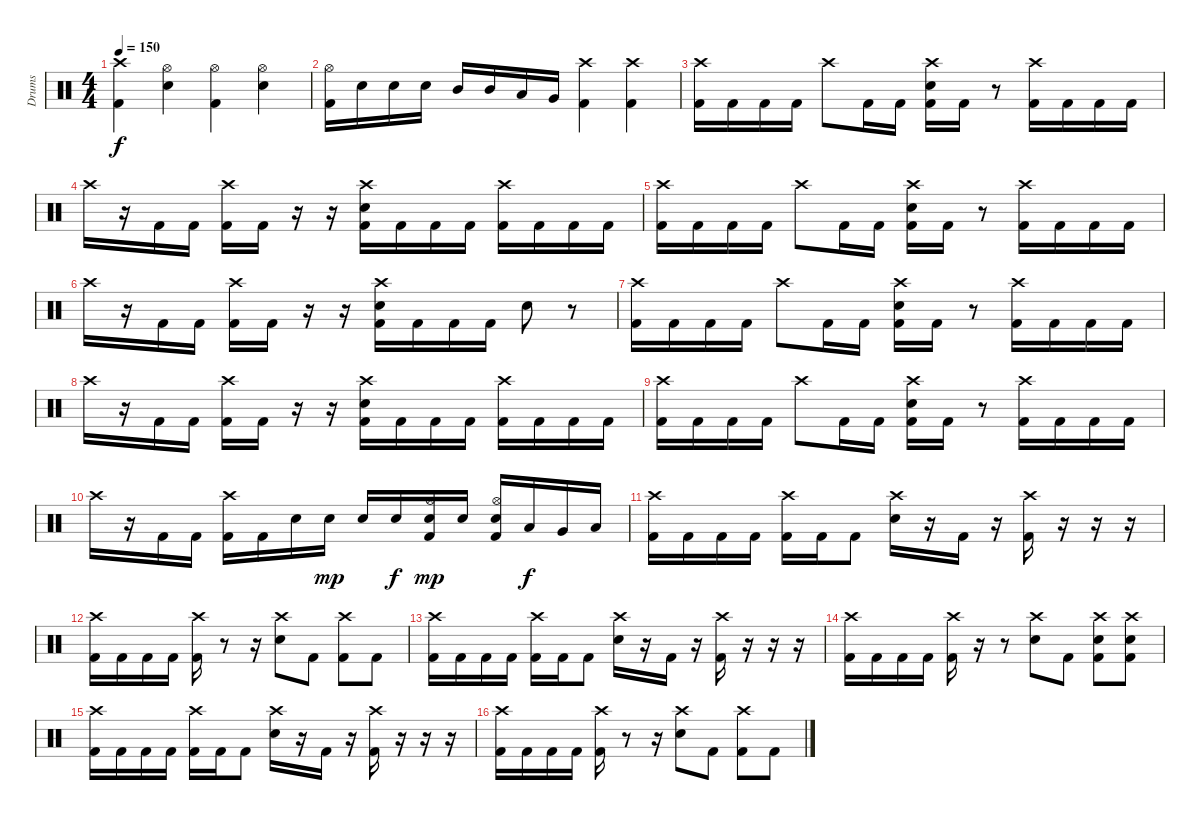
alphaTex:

\track ("Drums" "Drums") {instrument percussion}
\staff {score}
\articulation defaults
\ts (4 4)
\tempo 150
\clef neutral
\ks c
("Crash high (hit)" "Kick (hit) 2").4{dy f} ("Hi-Hat (open)" "Electric Snare (hit)").4 ("Hi-Hat (open)" "Kick (hit) 2").4 ("Hi-Hat (open)" "Electric Snare (hit)").4 |
("Hi-Hat (open)" "Kick (hit) 2").16 "Electric Snare (hit)".16 "Electric Snare (hit)".16 "Electric Snare (hit)".16 "Mid Tom (hit)".16 "Mid Tom (hit)".16 "Low Tom (hit)".16 "Very Low Tom (hit)".16 ("Crash high (hit)" "Kick (hit) 2").4 ("Crash high (hit)" "Kick (hit) 2").4 |
("Crash high (hit)" "Kick (hit) 2").16 "Kick (hit) 2".16 "Kick (hit) 2".16 "Kick (hit) 2".16 "Crash high (hit)".8 "Kick (hit) 2".16 "Kick (hit) 2".16 ("Crash high (hit)" "Electric Snare (hit)" "Kick (hit) 2").16 "Kick (hit) 2".16 r.8 ("Crash high (hit)" "Kick (hit) 2").16 "Kick (hit) 2".16 "Kick (hit) 2".16 "Kick (hit) 2".16 |
"Crash high (hit)".16 r.16 "Kick (hit) 2".16 "Kick (hit) 2".16 ("Crash high (hit)" "Kick (hit) 2").16 "Kick (hit) 2".16 r.16 r.16 ("Crash high (hit)" "Electric Snare (hit)" "Kick (hit) 2").16 "Kick (hit) 2".16 "Kick (hit) 2".16 "Kick (hit) 2".16 ("Crash high (hit)" "Kick (hit) 2").16 "Kick (hit) 2".16 "Kick (hit) 2".16 "Kick (hit) 2".16 |
("Crash high (hit)" "Kick (hit) 2").16 "Kick (hit) 2".16 "Kick (hit) 2".16 "Kick (hit) 2".16 "Crash high (hit)".8 "Kick (hit) 2".16 "Kick (hit) 2".16 ("Crash high (hit)" "Electric Snare (hit)" "Kick (hit) 2").16 "Kick (hit) 2".16 r.8 ("Crash high (hit)" "Kick (hit) 2").16 "Kick (hit) 2".16 "Kick (hit) 2".16 "Kick (hit) 2".16 |
"Crash high (hit)".16 r.16 "Kick (hit) 2".16 "Kick (hit) 2".16 ("Crash high (hit)" "Kick (hit) 2").16 "Kick (hit) 2".16 r.16 r.16 ("Crash high (hit)" "Electric Snare (hit)" "Kick (hit) 2").16 "Kick (hit) 2".16 "Kick (hit) 2".16 "Kick (hit) 2".16 "Electric Snare (hit)".8 r.8 |
("Crash high (hit)" "Kick (hit) 2").16 "Kick (hit) 2".16 "Kick (hit) 2".16 "Kick (hit) 2".16 "Crash high (hit)".8 "Kick (hit) 2".16 "Kick (hit) 2".16 ("Crash high (hit)" "Electric Snare (hit)" "Kick (hit) 2").16 "Kick (hit) 2".16 r.8 ("Crash high (hit)" "Kick (hit) 2").16 "Kick (hit) 2".16 "Kick (hit) 2".16 "Kick (hit) 2".16 |
"Crash high (hit)".16 r.16 "Kick (hit) 2".16 "Kick (hit) 2".16 ("Crash high (hit)" "Kick (hit) 2").16 "Kick (hit) 2".16 r.16 r.16 ("Crash high (hit)" "Electric Snare (hit)" "Kick (hit) 2").16 "Kick (hit) 2".16 "Kick (hit) 2".16 "Kick (hit) 2".16 ("Crash high (hit)" "Kick (hit) 2").16 "Kick (hit) 2".16 "Kick (hit) 2".16 "Kick (hit) 2".16 |
("Crash high (hit)" "Kick (hit) 2").16 "Kick (hit) 2".16 "Kick (hit) 2".16 "Kick (hit) 2".16 "Crash high (hit)".8 "Kick (hit) 2".16 "Kick (hit) 2".16 ("Crash high (hit)" "Electric Snare (hit)" "Kick (hit) 2").16 "Kick (hit) 2".16 r.8 ("Crash high (hit)" "Kick (hit) 2").16 "Kick (hit) 2".16 "Kick (hit) 2".16 "Kick (hit) 2".16 |
"Crash high (hit)".16 r.16 "Kick (hit) 2".16 "Kick (hit) 2".16 ("Crash high (hit)" "Kick (hit) 2").16 "Kick (hit) 2".16 "Electric Snare (hit)".16 "Electric Snare (hit)".16{dy mp} "Electric Snare (hit)".16 "Electric Snare (hit)".16{dy f} ("Hi-Hat (open)" "Electric Snare (hit)" "Kick (hit) 2").16{dy mp} "Electric Snare (hit)".16 ("Hi-Hat (open)" "Electric Snare (hit)" "Kick (hit) 2").16 "Low Tom (hit)".16{dy f} "Very Low Tom (hit)".16 "Low Floor Tom (hit)".16 |
("Crash high (hit)" "Kick (hit) 2").16 "Kick (hit) 2".16 "Kick (hit) 2".16 "Kick (hit) 2".16 ("Crash high (hit)" "Kick (hit) 2").16 "Kick (hit) 2".16 "Kick (hit) 2".8 ("Crash high (hit)" "Electric Snare (hit)").16 r.16 "Kick (hit) 2".16 r.16 ("Crash high (hit)" "Kick (hit) 2").16 r.16 r.16 r.16 |
("Crash high (hit)" "Kick (hit) 2").16 "Kick (hit) 2".16 "Kick (hit) 2".16 "Kick (hit) 2".16 ("Crash high (hit)" "Kick (hit) 2").16 r.8 r.16 ("Crash high (hit)" "Electric Snare (hit)").8 "Kick (hit) 2".8 ("Crash high (hit)" "Kick (hit) 2").8 "Kick (hit) 2".8 |
("Crash high (hit)" "Kick (hit) 2").16 "Kick (hit) 2".16 "Kick (hit) 2".16 "Kick (hit) 2".16 ("Crash high (hit)" "Kick (hit) 2").16 "Kick (hit) 2".16 "Kick (hit) 2".8 ("Crash high (hit)" "Electric Snare (hit)").16 r.16 "Kick (hit) 2".16 r.16 ("Crash high (hit)" "Kick (hit) 2").16 r.16 r.16 r.16 |
("Crash high (hit)" "Kick (hit) 2").16 "Kick (hit) 2".16 "Kick (hit) 2".16 "Kick (hit) 2".16 ("Crash high (hit)" "Kick (hit) 2").16 r.16 r.8 ("Crash high (hit)" "Electric Snare (hit)").8 "Kick (hit) 2".8 ("Crash high (hit)" "Electric Snare (hit)" "Kick (hit) 2").8 ("Crash high (hit)" "Electric Snare (hit)" "Kick (hit) 2").8 |
("Crash high (hit)" "Kick (hit) 2").16 "Kick (hit) 2".16 "Kick (hit) 2".16 "Kick (hit) 2".16 ("Crash high (hit)" "Kick (hit) 2").16 "Kick (hit) 2".16 "Kick (hit) 2".8 ("Crash high (hit)" "Electric Snare (hit)").16 r.16 "Kick (hit) 2".16 r.16 ("Crash high (hit)" "Kick (hit) 2").16 r.16 r.16 r.16 |
("Crash high (hit)" "Kick (hit) 2").16 "Kick (hit) 2".16 "Kick (hit) 2".16 "Kick (hit) 2".16 ("Crash high (hit)" "Kick (hit) 2").16 r.8 r.16 ("Crash high (hit)" "Electric Snare (hit)").8 "Kick (hit) 2".8 ("Crash high (hit)" "Kick (hit) 2").8 "Kick (hit) 2".8
